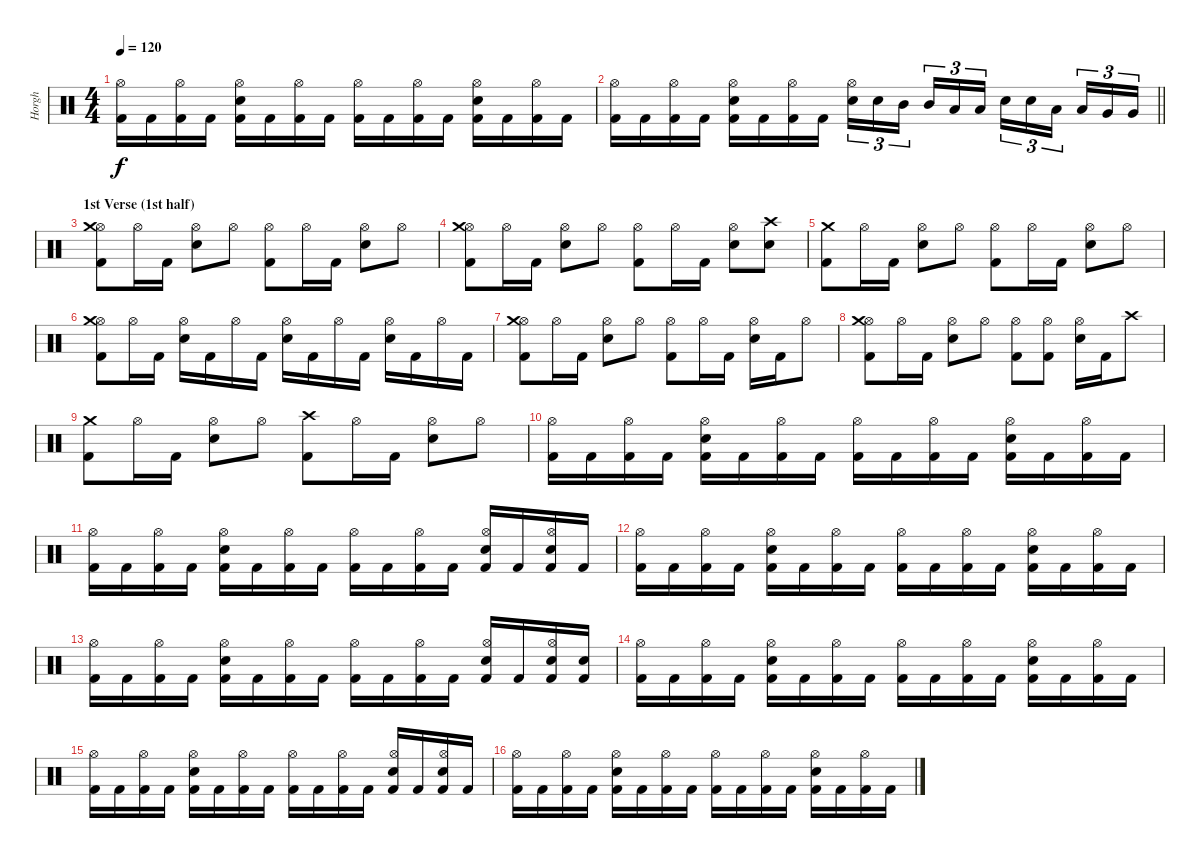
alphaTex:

\track ("Horgh" "Horgh") {instrument percussion}
\staff {score}
\articulation defaults
\ts (4 4)
\tempo 120
\clef neutral
\ks c
("Kick (hit) 2" "Hi-Hat (open)").16{dy f} "Kick (hit) 2".16 ("Kick (hit) 2" "Hi-Hat (open)").16 "Kick (hit) 2".16 ("Kick (hit) 2" "Electric Snare (hit)" "Hi-Hat (open)").16 "Kick (hit) 2".16 ("Kick (hit) 2" "Hi-Hat (open)").16 "Kick (hit) 2".16 ("Kick (hit) 2" "Hi-Hat (open)").16 "Kick (hit) 2".16 ("Kick (hit) 2" "Hi-Hat (open)").16 "Kick (hit) 2".16 ("Kick (hit) 2" "Electric Snare (hit)" "Hi-Hat (open)").16 "Kick (hit) 2".16 ("Kick (hit) 2" "Hi-Hat (open)").16 "Kick (hit) 2".16 |
\barLineRight lightlight
("Kick (hit) 2" "Hi-Hat (open)").16 "Kick (hit) 2".16 ("Kick (hit) 2" "Hi-Hat (open)").16 "Kick (hit) 2".16 ("Kick (hit) 2" "Electric Snare (hit)" "Hi-Hat (open)").16 "Kick (hit) 2".16 ("Kick (hit) 2" "Hi-Hat (open)").16 "Kick (hit) 2".16 ("Electric Snare (hit)" "Hi-Hat (open)").16{tu (3 2)} "Electric Snare (hit)".16{tu (3 2)} "Mid Tom (hit)".16{tu (3 2) beam splitsecondary} "Mid Tom (hit)".16{tu (3 2)} "Low Tom (hit)".16{tu (3 2)} "Low Tom (hit)".16{tu (3 2)} "Electric Snare (hit)".16{tu (3 2)} "Electric Snare (hit)".16{tu (3 2)} "Low Tom (hit)".16{tu (3 2) beam splitsecondary} "Low Tom (hit)".16{tu (3 2)} "Very Low Tom (hit)".16{tu (3 2)} "Very Low Tom (hit)".16{tu (3 2)} |
\section ("" "1st Verse (1st half)")
("Kick (hit) 2" "Hi-Hat (open)" "Crash medium (hit)").8 "Hi-Hat (open)".16 "Kick (hit) 2".16 ("Electric Snare (hit)" "Hi-Hat (open)").8 "Hi-Hat (open)".8 ("Kick (hit) 2" "Hi-Hat (open)").8 "Hi-Hat (open)".16 "Kick (hit) 2".16 ("Electric Snare (hit)" "Hi-Hat (open)").8 "Hi-Hat (open)".8 |
("Kick (hit) 2" "Hi-Hat (open)" "Crash medium (hit)").8 "Hi-Hat (open)".16 "Kick (hit) 2".16 ("Electric Snare (hit)" "Hi-Hat (open)").8 "Hi-Hat (open)".8 ("Kick (hit) 2" "Hi-Hat (open)").8 "Hi-Hat (open)".16 "Kick (hit) 2".16 ("Electric Snare (hit)" "Hi-Hat (open)").8 ("Electric Snare (hit)" "Crash high (hit)").8 |
("Kick (hit) 2" "Crash medium (hit)").8 "Hi-Hat (open)".16 "Kick (hit) 2".16 ("Electric Snare (hit)" "Hi-Hat (open)").8 "Hi-Hat (open)".8 ("Kick (hit) 2" "Hi-Hat (open)").8 "Hi-Hat (open)".16 "Kick (hit) 2".16 ("Electric Snare (hit)" "Hi-Hat (open)").8 "Hi-Hat (open)".8 |
("Kick (hit) 2" "Hi-Hat (open)" "Crash medium (hit)").8 "Hi-Hat (open)".16 "Kick (hit) 2".16 ("Electric Snare (hit)" "Hi-Hat (open)").16 "Kick (hit) 2".16 "Hi-Hat (open)".16 "Kick (hit) 2".16 ("Electric Snare (hit)" "Hi-Hat (open)").16 "Kick (hit) 2".16 "Hi-Hat (open)".16 "Kick (hit) 2".16 ("Electric Snare (hit)" "Hi-Hat (open)").16 "Kick (hit) 2".16 "Hi-Hat (open)".16 "Kick (hit) 2".16 |
("Kick (hit) 2" "Hi-Hat (open)" "Crash medium (hit)").8 "Hi-Hat (open)".16 "Kick (hit) 2".16 ("Electric Snare (hit)" "Hi-Hat (open)").8 "Hi-Hat (open)".8 ("Kick (hit) 2" "Hi-Hat (open)").8 "Hi-Hat (open)".16 "Kick (hit) 2".16 ("Electric Snare (hit)" "Hi-Hat (open)").16 "Kick (hit) 2".16 "Hi-Hat (open)".8 |
("Kick (hit) 2" "Hi-Hat (open)" "Crash medium (hit)").8 "Hi-Hat (open)".16 "Kick (hit) 2".16 ("Electric Snare (hit)" "Hi-Hat (open)").8 "Hi-Hat (open)".8 ("Kick (hit) 2" "Hi-Hat (open)").8 ("Kick (hit) 2" "Hi-Hat (open)").8 ("Electric Snare (hit)" "Hi-Hat (open)").16 "Kick (hit) 2".16 "Crash high (hit)".8 |
("Kick (hit) 2" "Crash medium (hit)").8 "Hi-Hat (open)".16 "Kick (hit) 2".16 ("Electric Snare (hit)" "Hi-Hat (open)").8 "Hi-Hat (open)".8 ("Kick (hit) 2" "Crash high (hit)").8 "Hi-Hat (open)".16 "Kick (hit) 2".16 ("Electric Snare (hit)" "Hi-Hat (open)").8 "Hi-Hat (open)".8 |
("Kick (hit) 2" "Hi-Hat (open)").16 "Kick (hit) 2".16 ("Kick (hit) 2" "Hi-Hat (open)").16 "Kick (hit) 2".16 ("Kick (hit) 2" "Electric Snare (hit)" "Hi-Hat (open)").16 "Kick (hit) 2".16 ("Kick (hit) 2" "Hi-Hat (open)").16 "Kick (hit) 2".16 ("Kick (hit) 2" "Hi-Hat (open)").16 "Kick (hit) 2".16 ("Kick (hit) 2" "Hi-Hat (open)").16 "Kick (hit) 2".16 ("Kick (hit) 2" "Electric Snare (hit)" "Hi-Hat (open)").16 "Kick (hit) 2".16 ("Kick (hit) 2" "Hi-Hat (open)").16 "Kick (hit) 2".16 |
("Kick (hit) 2" "Hi-Hat (open)").16 "Kick (hit) 2".16 ("Kick (hit) 2" "Hi-Hat (open)").16 "Kick (hit) 2".16 ("Kick (hit) 2" "Electric Snare (hit)" "Hi-Hat (open)").16 "Kick (hit) 2".16 ("Kick (hit) 2" "Hi-Hat (open)").16 "Kick (hit) 2".16 ("Kick (hit) 2" "Hi-Hat (open)").16 "Kick (hit) 2".16 ("Kick (hit) 2" "Hi-Hat (open)").16 "Kick (hit) 2".16 ("Kick (hit) 2" "Electric Snare (hit)" "Hi-Hat (open)").16 "Kick (hit) 2".16 ("Kick (hit) 2" "Electric Snare (hit)" "Hi-Hat (open)").16 "Kick (hit) 2".16 |
("Kick (hit) 2" "Hi-Hat (open)").16 "Kick (hit) 2".16 ("Kick (hit) 2" "Hi-Hat (open)").16 "Kick (hit) 2".16 ("Kick (hit) 2" "Electric Snare (hit)" "Hi-Hat (open)").16 "Kick (hit) 2".16 ("Kick (hit) 2" "Hi-Hat (open)").16 "Kick (hit) 2".16 ("Kick (hit) 2" "Hi-Hat (open)").16 "Kick (hit) 2".16 ("Kick (hit) 2" "Hi-Hat (open)").16 "Kick (hit) 2".16 ("Kick (hit) 2" "Electric Snare (hit)" "Hi-Hat (open)").16 "Kick (hit) 2".16 ("Kick (hit) 2" "Hi-Hat (open)").16 "Kick (hit) 2".16 |
("Kick (hit) 2" "Hi-Hat (open)").16 "Kick (hit) 2".16 ("Kick (hit) 2" "Hi-Hat (open)").16 "Kick (hit) 2".16 ("Kick (hit) 2" "Electric Snare (hit)" "Hi-Hat (open)").16 "Kick (hit) 2".16 ("Kick (hit) 2" "Hi-Hat (open)").16 "Kick (hit) 2".16 ("Kick (hit) 2" "Hi-Hat (open)").16 "Kick (hit) 2".16 ("Kick (hit) 2" "Hi-Hat (open)").16 "Kick (hit) 2".16 ("Kick (hit) 2" "Electric Snare (hit)" "Hi-Hat (open)").16 "Kick (hit) 2".16 ("Kick (hit) 2" "Electric Snare (hit)" "Hi-Hat (open)").16 ("Kick (hit) 2" "Electric Snare (hit)").16 |
("Kick (hit) 2" "Hi-Hat (open)").16 "Kick (hit) 2".16 ("Kick (hit) 2" "Hi-Hat (open)").16 "Kick (hit) 2".16 ("Kick (hit) 2" "Electric Snare (hit)" "Hi-Hat (open)").16 "Kick (hit) 2".16 ("Kick (hit) 2" "Hi-Hat (open)").16 "Kick (hit) 2".16 ("Kick (hit) 2" "Hi-Hat (open)").16 "Kick (hit) 2".16 ("Kick (hit) 2" "Hi-Hat (open)").16 "Kick (hit) 2".16 ("Kick (hit) 2" "Electric Snare (hit)" "Hi-Hat (open)").16 "Kick (hit) 2".16 ("Kick (hit) 2" "Hi-Hat (open)").16 "Kick (hit) 2".16 |
("Kick (hit) 2" "Hi-Hat (open)").16 "Kick (hit) 2".16 ("Kick (hit) 2" "Hi-Hat (open)").16 "Kick (hit) 2".16 ("Kick (hit) 2" "Electric Snare (hit)" "Hi-Hat (open)").16 "Kick (hit) 2".16 ("Kick (hit) 2" "Hi-Hat (open)").16 "Kick (hit) 2".16 ("Kick (hit) 2" "Hi-Hat (open)").16 "Kick (hit) 2".16 ("Kick (hit) 2" "Hi-Hat (open)").16 "Kick (hit) 2".16 ("Kick (hit) 2" "Electric Snare (hit)" "Hi-Hat (open)").16 "Kick (hit) 2".16 ("Kick (hit) 2" "Electric Snare (hit)" "Hi-Hat (open)").16 "Kick (hit) 2".16 |
("Kick (hit) 2" "Hi-Hat (open)").16 "Kick (hit) 2".16 ("Kick (hit) 2" "Hi-Hat (open)").16 "Kick (hit) 2".16 ("Kick (hit) 2" "Electric Snare (hit)" "Hi-Hat (open)").16 "Kick (hit) 2".16 ("Kick (hit) 2" "Hi-Hat (open)").16 "Kick (hit) 2".16 ("Kick (hit) 2" "Hi-Hat (open)").16 "Kick (hit) 2".16 ("Kick (hit) 2" "Hi-Hat (open)").16 "Kick (hit) 2".16 ("Kick (hit) 2" "Electric Snare (hit)" "Hi-Hat (open)").16 "Kick (hit) 2".16 ("Kick (hit) 2" "Hi-Hat (open)").16 "Kick (hit) 2".16
